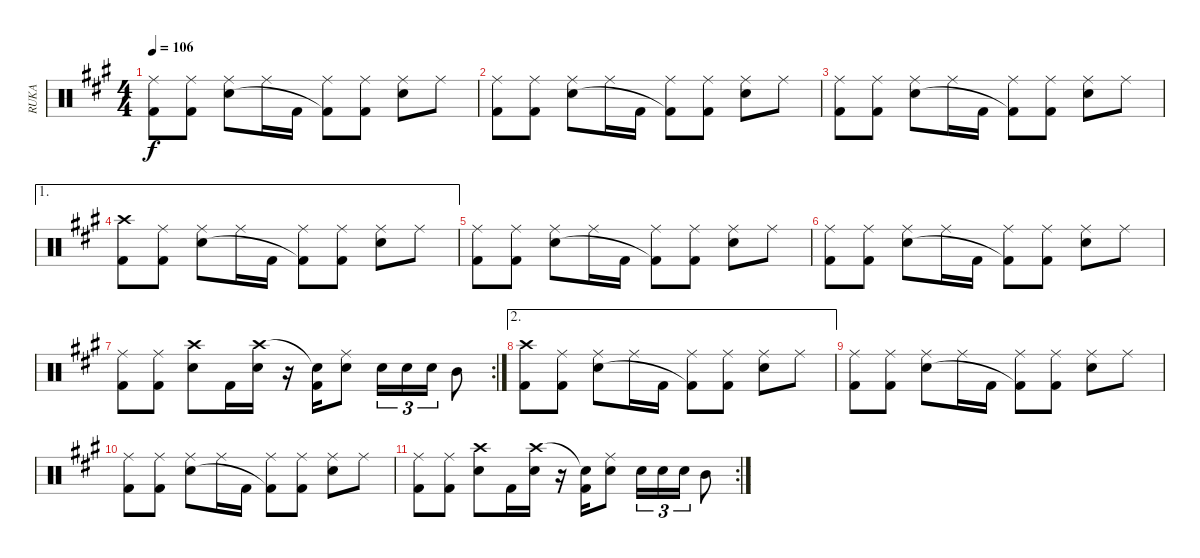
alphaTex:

\track ("RUKA" "RUKA") {instrument percussion}
\staff {score}
\articulation defaults
\ts (4 4)
\tempo 106
\clef neutral
\ks a
("Ride (middle)" "Kick (hit) 2").8{dy f} ("Ride (middle)" "Kick (hit) 2").8 ("Ride (middle)" "Snare (hit) 2").8 "Ride (middle)".16 "Kick (hit) 2".16 ("Ride (middle)" "Kick (hit) 2"{t}).8 ("Ride (middle)" "Kick (hit) 2").8 ("Ride (middle)" "Snare (hit) 2").8 "Ride (middle)".8 |
("Ride (middle)" "Kick (hit) 2").8 ("Ride (middle)" "Kick (hit) 2").8 ("Ride (middle)" "Snare (hit) 2").8 "Ride (middle)".16 "Kick (hit) 2".16 ("Ride (middle)" "Kick (hit) 2"{t}).8 ("Ride (middle)" "Kick (hit) 2").8 ("Ride (middle)" "Snare (hit) 2").8 "Ride (middle)".8 |
("Ride (middle)" "Kick (hit) 2").8 ("Ride (middle)" "Kick (hit) 2").8 ("Ride (middle)" "Snare (hit) 2").8 "Ride (middle)".16 "Kick (hit) 2".16 ("Ride (middle)" "Kick (hit) 2"{t}).8 ("Ride (middle)" "Kick (hit) 2").8 ("Ride (middle)" "Snare (hit) 2").8 "Ride (middle)".8 |
\ae 1
("Crash high (hit)" "Kick (hit) 2").8 ("Ride (middle)" "Kick (hit) 2").8 ("Ride (middle)" "Snare (hit) 2").8 "Ride (middle)".16 "Kick (hit) 2".16 ("Ride (middle)" "Kick (hit) 2"{t}).8 ("Ride (middle)" "Kick (hit) 2").8 ("Ride (middle)" "Snare (hit) 2").8 "Ride (middle)".8 |
("Ride (middle)" "Kick (hit) 2").8 ("Ride (middle)" "Kick (hit) 2").8 ("Ride (middle)" "Snare (hit) 2").8 "Ride (middle)".16 "Kick (hit) 2".16 ("Ride (middle)" "Kick (hit) 2"{t}).8 ("Ride (middle)" "Kick (hit) 2").8 ("Ride (middle)" "Snare (hit) 2").8 "Ride (middle)".8 |
("Ride (middle)" "Kick (hit) 2").8 ("Ride (middle)" "Kick (hit) 2").8 ("Ride (middle)" "Snare (hit) 2").8 "Ride (middle)".16 "Kick (hit) 2".16 ("Ride (middle)" "Kick (hit) 2"{t}).8 ("Ride (middle)" "Kick (hit) 2").8 ("Ride (middle)" "Snare (hit) 2").8 "Ride (middle)".8 |
\rc 2
("Ride (middle)" "Kick (hit) 2").8 ("Ride (middle)" "Kick (hit) 2").8 ("Crash high (hit)" "Snare (hit) 2").8 "Kick (hit) 2".16 ("Crash high (hit)" "Snare (hit) 2").16 r.16 ("Snare (hit)"{t} "Kick (hit) 2").16 ("Ride (middle)" "Snare (hit) 2").8 "Snare (hit) 2".16{tu (3 2)} "Snare (hit) 2".16{tu (3 2)} "Snare (hit) 2".16{tu (3 2)} "Mid Tom (hit)".8 |
\ae 2
("Crash high (hit)" "Kick (hit) 2").8 ("Ride (middle)" "Kick (hit) 2").8 ("Ride (middle)" "Snare (hit) 2").8 "Ride (middle)".16 "Kick (hit) 2".16 ("Ride (middle)" "Kick (hit) 2"{t}).8 ("Ride (middle)" "Kick (hit) 2").8 ("Ride (middle)" "Snare (hit) 2").8 "Ride (middle)".8 |
("Ride (middle)" "Kick (hit) 2").8 ("Ride (middle)" "Kick (hit) 2").8 ("Ride (middle)" "Snare (hit) 2").8 "Ride (middle)".16 "Kick (hit) 2".16 ("Ride (middle)" "Kick (hit) 2"{t}).8 ("Ride (middle)" "Kick (hit) 2").8 ("Ride (middle)" "Snare (hit) 2").8 "Ride (middle)".8 |
("Ride (middle)" "Kick (hit) 2").8 ("Ride (middle)" "Kick (hit) 2").8 ("Ride (middle)" "Snare (hit) 2").8 "Ride (middle)".16 "Kick (hit) 2".16 ("Ride (middle)" "Kick (hit) 2"{t}).8 ("Ride (middle)" "Kick (hit) 2").8 ("Ride (middle)" "Snare (hit) 2").8 "Ride (middle)".8 |
\rc 2
("Ride (middle)" "Kick (hit) 2").8 ("Ride (middle)" "Kick (hit) 2").8 ("Crash high (hit)" "Snare (hit) 2").8 "Kick (hit) 2".16 ("Crash high (hit)" "Snare (hit) 2").16 r.16 ("Snare (hit)"{t} "Kick (hit) 2").16 ("Ride (middle)" "Snare (hit) 2").8 "Snare (hit) 2".16{tu (3 2)} "Snare (hit) 2".16{tu (3 2)} "Snare (hit) 2".16{tu (3 2)} "Mid Tom (hit)".8
